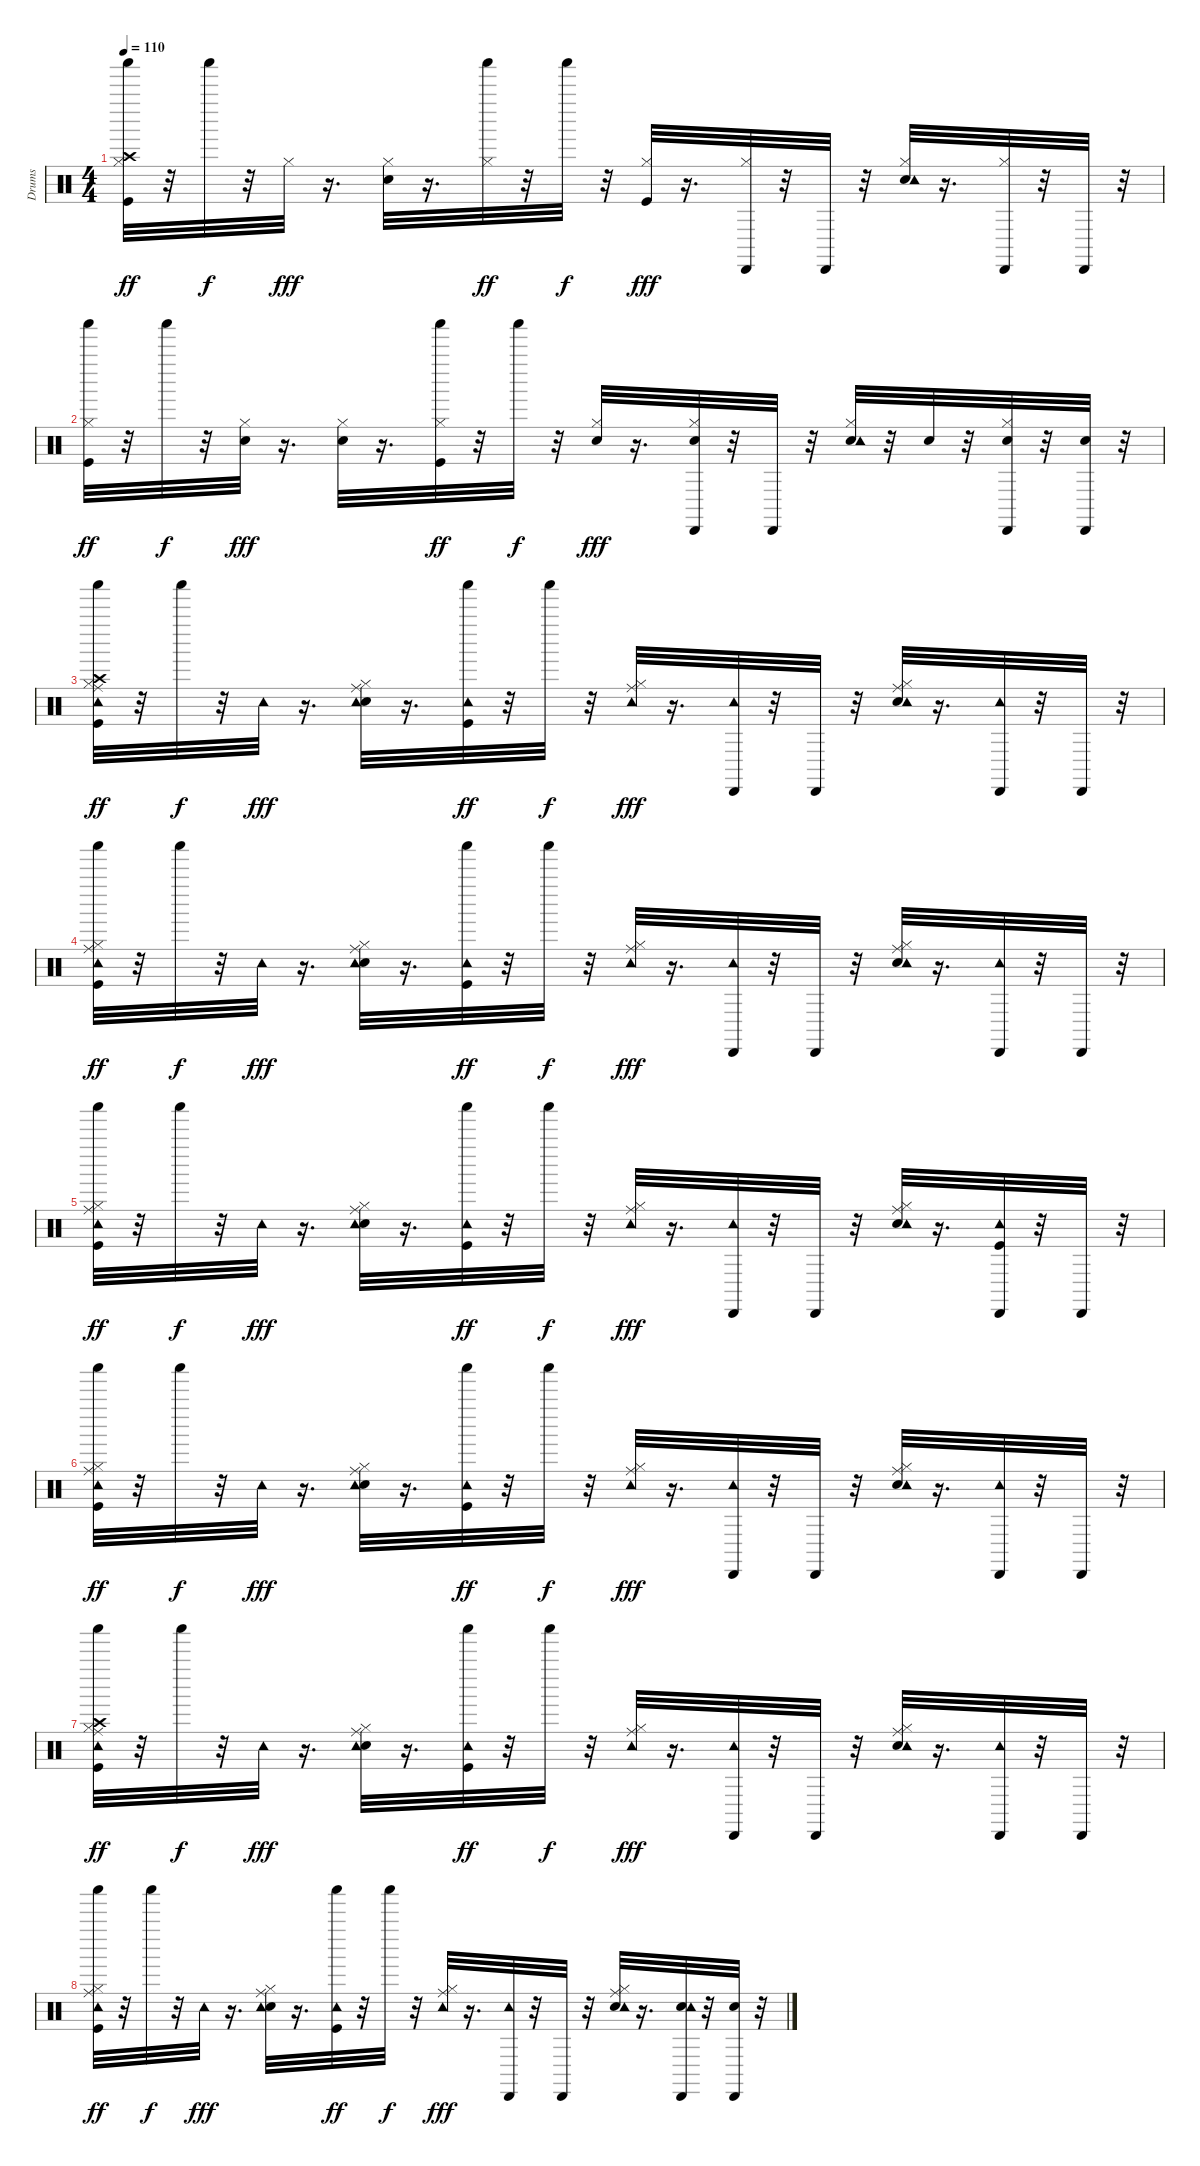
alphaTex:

\track ("Drums               " "Drums     ") {instrument percussion}
\staff {score}
\articulation defaults
\ts (4 4)
\tempo 110
\clef neutral
\ks c
("Kick (hit)" "Hi-Hat (closed)" "Crash high (hit)" "Shaker (hit)").32{dy ff} r.32 "Shaker (hit)".32{dy f} r.32 "Hi-Hat (closed)".32{dy fff} r.16{d} ("Electric Snare (hit)" "Hi-Hat (closed)").32 r.16{d} ("Hi-Hat (closed)" "Shaker (hit)").32{dy ff} r.32 "Shaker (hit)".32{dy f} r.32 ("Kick (hit)" "Hi-Hat (closed)").32{dy fff} r.16{d} ("Hi-Hat (closed)" "Cabasa (hit)").32 r.32 "Cabasa (hit)".32 r.32 ("Electric Snare (hit)" "Hi-Hat (closed)" "Tambourine (hit)").32 r.16{d} ("Hi-Hat (closed)" "Cabasa (hit)").32 r.32 "Cabasa (hit)".32 r.32 |
("Kick (hit)" "Hi-Hat (closed)" "Shaker (hit)").32{dy ff} r.32 "Shaker (hit)".32{dy f} r.32 ("Electric Snare (hit)" "Hi-Hat (closed)").32{dy fff} r.16{d} ("Electric Snare (hit)" "Hi-Hat (closed)").32 r.16{d} ("Kick (hit)" "Hi-Hat (closed)" "Shaker (hit)").32{dy ff} r.32 "Shaker (hit)".32{dy f} r.32 ("Electric Snare (hit)" "Hi-Hat (closed)").32{dy fff} r.16{d} ("Electric Snare (hit)" "Hi-Hat (closed)" "Cabasa (hit)").32 r.32 "Cabasa (hit)".32 r.32 ("Electric Snare (hit)" "Hi-Hat (closed)" "Tambourine (hit)").32 r.32 "Electric Snare (hit)".32 r.32 ("Electric Snare (hit)" "Hi-Hat (closed)" "Cabasa (hit)").32 r.32 ("Electric Snare (hit)" "Cabasa (hit)").32 r.32 |
("Kick (hit)" "Hi-Hat (closed)" "Crash high (hit)" "Ride (middle)" "Tambourine (hit)" "Shaker (hit)").32{dy ff} r.32 "Shaker (hit)".32{dy f} r.32 "Tambourine (hit)".32{dy fff} r.16{d} ("Electric Snare (hit)" "Hi-Hat (closed)" "Ride (middle)" "Tambourine (hit)").32 r.16{d} ("Kick (hit)" "Tambourine (hit)" "Shaker (hit)").32{dy ff} r.32 "Shaker (hit)".32{dy f} r.32 ("Hi-Hat (closed)" "Ride (middle)" "Tambourine (hit)").32{dy fff} r.16{d} ("Tambourine (hit)" "Cabasa (hit)").32 r.32 "Cabasa (hit)".32 r.32 ("Electric Snare (hit)" "Hi-Hat (closed)" "Ride (middle)" "Tambourine (hit)").32 r.16{d} ("Tambourine (hit)" "Cabasa (hit)").32 r.32 "Cabasa (hit)".32 r.32 |
("Kick (hit)" "Hi-Hat (closed)" "Ride (middle)" "Tambourine (hit)" "Shaker (hit)").32{dy ff} r.32 "Shaker (hit)".32{dy f} r.32 "Tambourine (hit)".32{dy fff} r.16{d} ("Electric Snare (hit)" "Hi-Hat (closed)" "Ride (middle)" "Tambourine (hit)").32 r.16{d} ("Kick (hit)" "Tambourine (hit)" "Shaker (hit)").32{dy ff} r.32 "Shaker (hit)".32{dy f} r.32 ("Hi-Hat (closed)" "Ride (middle)" "Tambourine (hit)").32{dy fff} r.16{d} ("Tambourine (hit)" "Cabasa (hit)").32 r.32 "Cabasa (hit)".32 r.32 ("Electric Snare (hit)" "Hi-Hat (closed)" "Ride (middle)" "Tambourine (hit)").32 r.16{d} ("Tambourine (hit)" "Cabasa (hit)").32 r.32 "Cabasa (hit)".32 r.32 |
("Kick (hit)" "Hi-Hat (closed)" "Ride (middle)" "Tambourine (hit)" "Shaker (hit)").32{dy ff} r.32 "Shaker (hit)".32{dy f} r.32 "Tambourine (hit)".32{dy fff} r.16{d} ("Electric Snare (hit)" "Hi-Hat (closed)" "Ride (middle)" "Tambourine (hit)").32 r.16{d} ("Kick (hit)" "Tambourine (hit)" "Shaker (hit)").32{dy ff} r.32 "Shaker (hit)".32{dy f} r.32 ("Hi-Hat (closed)" "Ride (middle)" "Tambourine (hit)").32{dy fff} r.16{d} ("Tambourine (hit)" "Cabasa (hit)").32 r.32 "Cabasa (hit)".32 r.32 ("Electric Snare (hit)" "Hi-Hat (closed)" "Ride (middle)" "Tambourine (hit)").32 r.16{d} ("Kick (hit)" "Tambourine (hit)" "Cabasa (hit)").32 r.32 "Cabasa (hit)".32 r.32 |
("Kick (hit)" "Hi-Hat (closed)" "Ride (middle)" "Tambourine (hit)" "Shaker (hit)").32{dy ff} r.32 "Shaker (hit)".32{dy f} r.32 "Tambourine (hit)".32{dy fff} r.16{d} ("Electric Snare (hit)" "Hi-Hat (closed)" "Ride (middle)" "Tambourine (hit)").32 r.16{d} ("Kick (hit)" "Tambourine (hit)" "Shaker (hit)").32{dy ff} r.32 "Shaker (hit)".32{dy f} r.32 ("Hi-Hat (closed)" "Ride (middle)" "Tambourine (hit)").32{dy fff} r.16{d} ("Tambourine (hit)" "Cabasa (hit)").32 r.32 "Cabasa (hit)".32 r.32 ("Electric Snare (hit)" "Hi-Hat (closed)" "Ride (middle)" "Tambourine (hit)").32 r.16{d} ("Tambourine (hit)" "Cabasa (hit)").32 r.32 "Cabasa (hit)".32 r.32 |
("Kick (hit)" "Hi-Hat (closed)" "Crash high (hit)" "Ride (middle)" "Tambourine (hit)" "Shaker (hit)").32{dy ff} r.32 "Shaker (hit)".32{dy f} r.32 "Tambourine (hit)".32{dy fff} r.16{d} ("Electric Snare (hit)" "Hi-Hat (closed)" "Ride (middle)" "Tambourine (hit)").32 r.16{d} ("Kick (hit)" "Tambourine (hit)" "Shaker (hit)").32{dy ff} r.32 "Shaker (hit)".32{dy f} r.32 ("Hi-Hat (closed)" "Ride (middle)" "Tambourine (hit)").32{dy fff} r.16{d} ("Tambourine (hit)" "Cabasa (hit)").32 r.32 "Cabasa (hit)".32 r.32 ("Electric Snare (hit)" "Hi-Hat (closed)" "Ride (middle)" "Tambourine (hit)").32 r.16{d} ("Tambourine (hit)" "Cabasa (hit)").32 r.32 "Cabasa (hit)".32 r.32 |
("Kick (hit)" "Hi-Hat (closed)" "Ride (middle)" "Tambourine (hit)" "Shaker (hit)").32{dy ff} r.32 "Shaker (hit)".32{dy f} r.32 "Tambourine (hit)".32{dy fff} r.16{d} ("Electric Snare (hit)" "Hi-Hat (closed)" "Ride (middle)" "Tambourine (hit)").32 r.16{d} ("Kick (hit)" "Tambourine (hit)" "Shaker (hit)").32{dy ff} r.32 "Shaker (hit)".32{dy f} r.32 ("Hi-Hat (closed)" "Ride (middle)" "Tambourine (hit)").32{dy fff} r.16{d} ("Tambourine (hit)" "Cabasa (hit)").32 r.32 "Cabasa (hit)".32 r.32 ("Electric Snare (hit)" "Hi-Hat (closed)" "Ride (middle)" "Tambourine (hit)").32 r.16{d} ("Electric Snare (hit)" "Tambourine (hit)" "Cabasa (hit)").32 r.32 ("Electric Snare (hit)" "Cabasa (hit)").32 r.32
